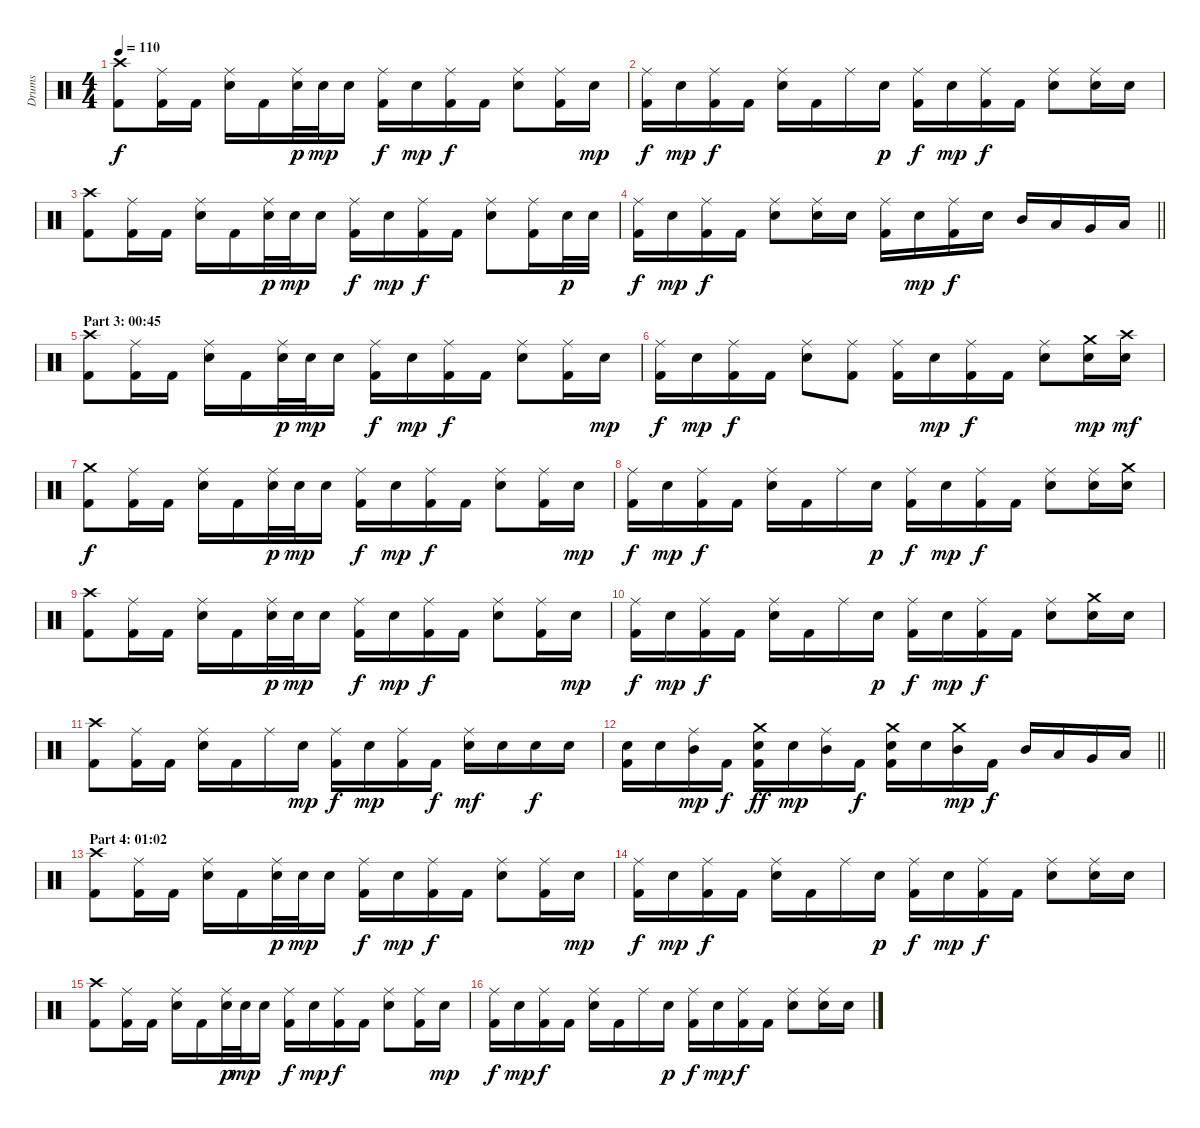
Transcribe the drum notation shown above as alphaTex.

\track ("Drums" "Drums") {instrument percussion}
\staff {score}
\articulation defaults
\ts (4 4)
\tempo 110
\clef neutral
\ks c
("Crash high (hit)" "Kick (hit) 2").8{dy f} ("Ride (middle)" "Kick (hit) 2").16 "Kick (hit) 2".16 ("Ride (middle)" "Electric Snare (hit)").16 "Kick (hit) 2".16 ("Ride (middle)" "Electric Snare (hit)").32{dy p} "Electric Snare (hit)".32{dy mp} "Electric Snare (hit)".16 ("Ride (middle)" "Kick (hit) 2").16{dy f} "Electric Snare (hit)".16{dy mp} ("Ride (middle)" "Kick (hit) 2").16{dy f} "Kick (hit) 2".16 ("Ride (middle)" "Electric Snare (hit)").8 ("Ride (middle)" "Kick (hit) 2").16 "Electric Snare (hit)".16{dy mp} |
("Ride (middle)" "Kick (hit) 2").16{dy f} "Electric Snare (hit)".16{dy mp} ("Ride (middle)" "Kick (hit) 2").16{dy f} "Kick (hit) 2".16 ("Ride (middle)" "Electric Snare (hit)").16 "Kick (hit) 2".16 "Ride (middle)".16 "Electric Snare (hit)".16{dy p} ("Ride (middle)" "Kick (hit) 2").16{dy f} "Electric Snare (hit)".16{dy mp} ("Ride (middle)" "Kick (hit) 2").16{dy f} "Kick (hit) 2".16 ("Ride (middle)" "Electric Snare (hit)").8 ("Ride (middle)" "Electric Snare (hit)").16 "Electric Snare (hit)".16 |
("Crash high (hit)" "Kick (hit) 2").8 ("Ride (middle)" "Kick (hit) 2").16 "Kick (hit) 2".16 ("Ride (middle)" "Electric Snare (hit)").16 "Kick (hit) 2".16 ("Ride (middle)" "Electric Snare (hit)").32{dy p} "Electric Snare (hit)".32{dy mp} "Electric Snare (hit)".16 ("Ride (middle)" "Kick (hit) 2").16{dy f} "Electric Snare (hit)".16{dy mp} ("Ride (middle)" "Kick (hit) 2").16{dy f} "Kick (hit) 2".16 ("Ride (middle)" "Electric Snare (hit)").8 ("Ride (middle)" "Kick (hit) 2").16 "Electric Snare (hit)".32{dy p} "Electric Snare (hit)".32 |
\barLineRight lightlight
("Ride (middle)" "Kick (hit) 2").16{dy f} "Electric Snare (hit)".16{dy mp} ("Ride (middle)" "Kick (hit) 2").16{dy f} "Kick (hit) 2".16 ("Ride (middle)" "Electric Snare (hit)").8 ("Ride (middle)" "Electric Snare (hit)").16 "Electric Snare (hit)".16 ("Ride (middle)" "Kick (hit) 2").16 "Electric Snare (hit)".16{dy mp} ("Ride (middle)" "Kick (hit) 2").16{dy f} "Electric Snare (hit)".16 "Mid Tom (hit)".16 "Low Tom (hit)".16 "Very Low Tom (hit)".16 "Low Floor Tom (hit)".16 |
\section ("" "Part 3: 00:45")
("Crash high (hit)" "Kick (hit) 2").8 ("Ride (middle)" "Kick (hit) 2").16 "Kick (hit) 2".16 ("Ride (middle)" "Electric Snare (hit)").16 "Kick (hit) 2".16 ("Ride (middle)" "Electric Snare (hit)").32{dy p} "Electric Snare (hit)".32{dy mp} "Electric Snare (hit)".16 ("Ride (middle)" "Kick (hit) 2").16{dy f} "Electric Snare (hit)".16{dy mp} ("Ride (middle)" "Kick (hit) 2").16{dy f} "Kick (hit) 2".16 ("Ride (middle)" "Electric Snare (hit)").8 ("Ride (middle)" "Kick (hit) 2").16 "Electric Snare (hit)".16{dy mp} |
("Ride (middle)" "Kick (hit) 2").16{dy f} "Electric Snare (hit)".16{dy mp} ("Ride (middle)" "Kick (hit) 2").16{dy f} "Kick (hit) 2".16 ("Ride (middle)" "Electric Snare (hit)").8 ("Ride (middle)" "Kick (hit) 2").8 ("Ride (middle)" "Kick (hit) 2").16 "Electric Snare (hit)".16{dy mp} ("Ride (middle)" "Kick (hit) 2").16{dy f} "Kick (hit) 2".16 ("Ride (middle)" "Electric Snare (hit)").8 ("Crash medium (hit)" "Electric Snare (hit)").16{dy mp} ("Crash high (hit)" "Electric Snare (hit)").16{dy mf} |
("Crash medium (hit)" "Kick (hit) 2").8{dy f} ("Ride (middle)" "Kick (hit) 2").16 "Kick (hit) 2".16 ("Ride (middle)" "Electric Snare (hit)").16 "Kick (hit) 2".16 ("Ride (middle)" "Electric Snare (hit)").32{dy p} "Electric Snare (hit)".32{dy mp} "Electric Snare (hit)".16 ("Ride (middle)" "Kick (hit) 2").16{dy f} "Electric Snare (hit)".16{dy mp} ("Ride (middle)" "Kick (hit) 2").16{dy f} "Kick (hit) 2".16 ("Ride (middle)" "Electric Snare (hit)").8 ("Ride (middle)" "Kick (hit) 2").16 "Electric Snare (hit)".16{dy mp} |
("Ride (middle)" "Kick (hit) 2").16{dy f} "Electric Snare (hit)".16{dy mp} ("Ride (middle)" "Kick (hit) 2").16{dy f} "Kick (hit) 2".16 ("Ride (middle)" "Electric Snare (hit)").16 "Kick (hit) 2".16 "Ride (middle)".16 "Electric Snare (hit)".16{dy p} ("Ride (middle)" "Kick (hit) 2").16{dy f} "Electric Snare (hit)".16{dy mp} ("Ride (middle)" "Kick (hit) 2").16{dy f} "Kick (hit) 2".16 ("Ride (middle)" "Electric Snare (hit)").8 ("Ride (middle)" "Electric Snare (hit)").16 ("Crash medium (hit)" "Electric Snare (hit)").16 |
("Crash high (hit)" "Kick (hit) 2").8 ("Ride (middle)" "Kick (hit) 2").16 "Kick (hit) 2".16 ("Ride (middle)" "Electric Snare (hit)").16 "Kick (hit) 2".16 ("Ride (middle)" "Electric Snare (hit)").32{dy p} "Electric Snare (hit)".32{dy mp} "Electric Snare (hit)".16 ("Ride (middle)" "Kick (hit) 2").16{dy f} "Electric Snare (hit)".16{dy mp} ("Ride (middle)" "Kick (hit) 2").16{dy f} "Kick (hit) 2".16 ("Ride (middle)" "Electric Snare (hit)").8 ("Ride (middle)" "Kick (hit) 2").16 "Electric Snare (hit)".16{dy mp} |
("Ride (middle)" "Kick (hit) 2").16{dy f} "Electric Snare (hit)".16{dy mp} ("Ride (middle)" "Kick (hit) 2").16{dy f} "Kick (hit) 2".16 ("Ride (middle)" "Electric Snare (hit)").16 "Kick (hit) 2".16 "Ride (middle)".16 "Electric Snare (hit)".16{dy p} ("Ride (middle)" "Kick (hit) 2").16{dy f} "Electric Snare (hit)".16{dy mp} ("Ride (middle)" "Kick (hit) 2").16{dy f} "Kick (hit) 2".16 ("Ride (middle)" "Electric Snare (hit)").8 ("Crash medium (hit)" "Electric Snare (hit)").16 "Electric Snare (hit)".16 |
("Crash high (hit)" "Kick (hit) 2").8 ("Ride (middle)" "Kick (hit) 2").16 "Kick (hit) 2".16 ("Ride (middle)" "Electric Snare (hit)").16 "Kick (hit) 2".16 "Ride (middle)".16 "Electric Snare (hit)".16{dy mp} ("Ride (middle)" "Kick (hit) 2").16{dy f} "Electric Snare (hit)".16{dy mp} ("Ride (middle)" "Kick (hit) 2").16 "Kick (hit) 2".16{dy f} ("Ride (middle)" "Electric Snare (hit)").16{dy mf} "Electric Snare (hit)".16 "Electric Snare (hit)".16{dy f} "Electric Snare (hit)".16 |
\barLineRight lightlight
("Electric Snare (hit)" "Kick (hit) 2").16 "Electric Snare (hit)".16 ("Ride (middle)" "Mid Tom (hit)").16{dy mp} "Kick (hit) 2".16{dy f} ("Crash medium (hit)" "Electric Snare (hit)" "Kick (hit) 2").16{dy ff} "Electric Snare (hit)".16{dy mp} ("Ride (middle)" "Mid Tom (hit)").16 "Kick (hit) 2".16{dy f} ("Crash medium (hit)" "Electric Snare (hit)" "Kick (hit) 2").16 "Electric Snare (hit)".16 ("Crash medium (hit)" "Mid Tom (hit)").16{dy mp} "Kick (hit) 2".16{dy f} "Mid Tom (hit)".16 "Low Tom (hit)".16 "Very Low Tom (hit)".16 "Low Floor Tom (hit)".16 |
\section ("" "Part 4: 01:02")
("Crash high (hit)" "Kick (hit) 2").8 ("Ride (middle)" "Kick (hit) 2").16 "Kick (hit) 2".16 ("Ride (middle)" "Electric Snare (hit)").16 "Kick (hit) 2".16 ("Ride (middle)" "Electric Snare (hit)").32{dy p} "Electric Snare (hit)".32{dy mp} "Electric Snare (hit)".16 ("Ride (middle)" "Kick (hit) 2").16{dy f} "Electric Snare (hit)".16{dy mp} ("Ride (middle)" "Kick (hit) 2").16{dy f} "Kick (hit) 2".16 ("Ride (middle)" "Electric Snare (hit)").8 ("Ride (middle)" "Kick (hit) 2").16 "Electric Snare (hit)".16{dy mp} |
("Ride (middle)" "Kick (hit) 2").16{dy f} "Electric Snare (hit)".16{dy mp} ("Ride (middle)" "Kick (hit) 2").16{dy f} "Kick (hit) 2".16 ("Ride (middle)" "Electric Snare (hit)").16 "Kick (hit) 2".16 "Ride (middle)".16 "Electric Snare (hit)".16{dy p} ("Ride (middle)" "Kick (hit) 2").16{dy f} "Electric Snare (hit)".16{dy mp} ("Ride (middle)" "Kick (hit) 2").16{dy f} "Kick (hit) 2".16 ("Ride (middle)" "Electric Snare (hit)").8 ("Ride (middle)" "Electric Snare (hit)").16 "Electric Snare (hit)".16 |
("Crash high (hit)" "Kick (hit) 2").8 ("Ride (middle)" "Kick (hit) 2").16 "Kick (hit) 2".16 ("Ride (middle)" "Electric Snare (hit)").16 "Kick (hit) 2".16 ("Ride (middle)" "Electric Snare (hit)").32{dy p} "Electric Snare (hit)".32{dy mp} "Electric Snare (hit)".16 ("Ride (middle)" "Kick (hit) 2").16{dy f} "Electric Snare (hit)".16{dy mp} ("Ride (middle)" "Kick (hit) 2").16{dy f} "Kick (hit) 2".16 ("Ride (middle)" "Electric Snare (hit)").8 ("Ride (middle)" "Kick (hit) 2").16 "Electric Snare (hit)".16{dy mp} |
("Ride (middle)" "Kick (hit) 2").16{dy f} "Electric Snare (hit)".16{dy mp} ("Ride (middle)" "Kick (hit) 2").16{dy f} "Kick (hit) 2".16 ("Ride (middle)" "Electric Snare (hit)").16 "Kick (hit) 2".16 "Ride (middle)".16 "Electric Snare (hit)".16{dy p} ("Ride (middle)" "Kick (hit) 2").16{dy f} "Electric Snare (hit)".16{dy mp} ("Ride (middle)" "Kick (hit) 2").16{dy f} "Kick (hit) 2".16 ("Ride (middle)" "Electric Snare (hit)").8 ("Ride (middle)" "Electric Snare (hit)").16 "Electric Snare (hit)".16
